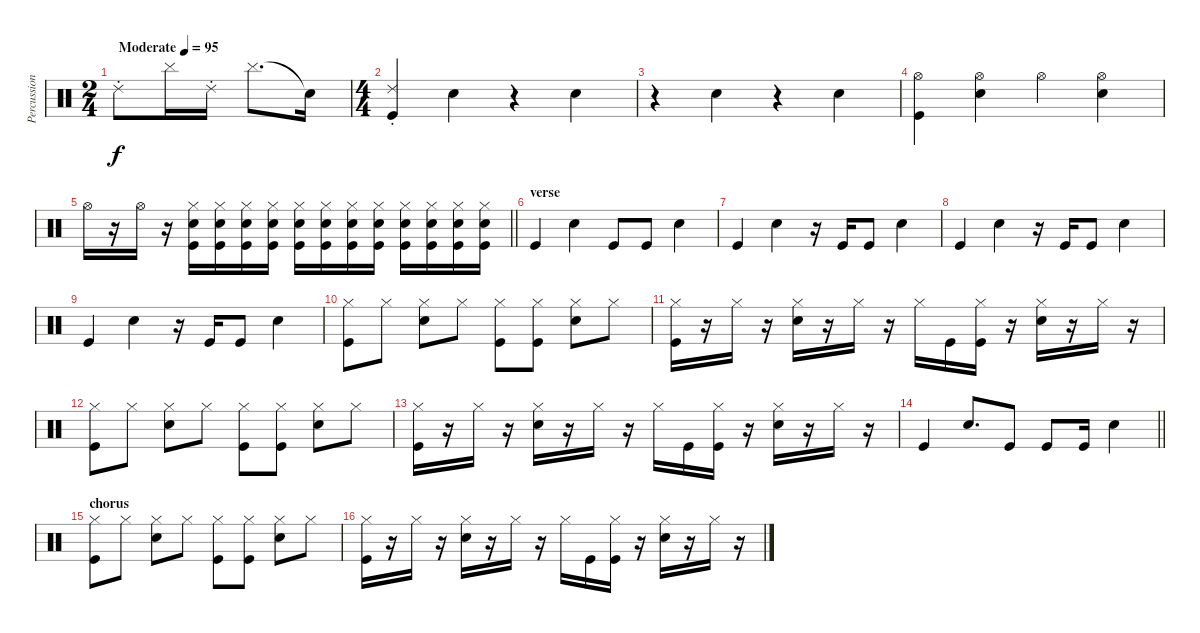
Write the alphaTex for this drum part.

\track ("Percussion" "Percussion") {instrument percussion}
\staff {score}
\articulation defaults
\ts (2 4)
\tempo (95 "Moderate")
\clef neutral
\ks c "Ride (choke) 2".8{dy f} "Cymbal (hit)".16 "Ride (choke) 2".16 "Cymbal (hit)".8{d} "Snare (hit)"{t}.16
|
\ts (4 4)
("Ride (choke) 2" "Kick (hit)").4 "Hand Clap (hit)".4 r.4 "Hand Clap (hit)".4 |
r.4 "Hand Clap (hit)".4 r.4 "Hand Clap (hit)".4 |
("Hi-Hat (open)" "Kick (hit)").4 ("Hi-Hat (open)" "Hand Clap (hit)").4 "Hi-Hat (open)".4 ("Hi-Hat (open)" "Hand Clap (hit)").4 |
\barLineRight lightlight "Hi-Hat (open)".16
r.16 "Hi-Hat (open)".16 r.16 ("Hi-Hat (closed)" "Snare (hit) 2" "Kick (hit)").16 ("Hi-Hat (closed)" "Snare (hit) 2" "Kick (hit)").16 ("Hi-Hat (closed)" "Snare (hit) 2" "Kick (hit)").16 ("Hi-Hat (closed)" "Snare (hit) 2" "Kick (hit)").16 ("Hi-Hat (closed)" "Snare (hit) 2" "Kick (hit)").16 ("Hi-Hat (closed)" "Snare (hit) 2" "Kick (hit)").16 ("Hi-Hat (closed)" "Snare (hit) 2" "Kick (hit)").16 ("Hi-Hat (closed)" "Snare (hit) 2" "Kick (hit)").16 ("Hi-Hat (closed)" "Snare (hit) 2" "Kick (hit)").16 ("Hi-Hat (closed)" "Snare (hit) 2" "Kick (hit)").16 ("Hi-Hat (closed)" "Snare (hit) 2" "Kick (hit)").16 ("Hi-Hat (closed)" "Snare (hit) 2" "Kick (hit)").16 |
\section ("" "verse")
"Kick (hit)".4 "Hand Clap (hit)".4 "Kick (hit)".8 "Kick (hit)".8 "Hand Clap (hit)".4 |
"Kick (hit)".4 "Snare (hit) 2".4 r.16 "Kick (hit)".16 "Kick (hit)".8 "Snare (hit) 2".4 |
"Kick (hit)".4 "Snare (hit) 2".4 r.16 "Kick (hit)".16 "Kick (hit)".8 "Snare (hit) 2".4 |
"Kick (hit)".4 "Snare (hit) 2".4 r.16 "Kick (hit)".16 "Kick (hit)".8 "Snare (hit) 2".4 |
("Hi-Hat (closed)" "Kick (hit)").8 "Hi-Hat (closed)".8 ("Hi-Hat (closed)" "Hand Clap (hit)").8 "Hi-Hat (closed)".8 ("Hi-Hat (closed)" "Kick (hit)").8 ("Hi-Hat (closed)" "Kick (hit)").8 ("Hi-Hat (closed)" "Hand Clap (hit)").8 "Hi-Hat (closed)".8 |
("Hi-Hat (closed)" "Kick (hit)").16 r.16 "Hi-Hat (closed)".16 r.16 ("Hi-Hat (closed)" "Hand Clap (hit)").16 r.16 "Hi-Hat (closed)".16 r.16 "Hi-Hat (closed)".16 "Kick (hit)".16 ("Hi-Hat (closed)" "Kick (hit)").16 r.16 ("Hi-Hat (closed)" "Hand Clap (hit)").16 r.16 "Hi-Hat (closed)".16 r.16 |
("Hi-Hat (closed)" "Kick (hit)").8 "Hi-Hat (closed)".8 ("Hi-Hat (closed)" "Hand Clap (hit)").8 "Hi-Hat (closed)".8 ("Hi-Hat (closed)" "Kick (hit)").8 ("Hi-Hat (closed)" "Kick (hit)").8 ("Hi-Hat (closed)" "Hand Clap (hit)").8 "Hi-Hat (closed)".8 |
("Hi-Hat (closed)" "Kick (hit)").16 r.16 "Hi-Hat (closed)".16 r.16 ("Hi-Hat (closed)" "Hand Clap (hit)").16 r.16 "Hi-Hat (closed)".16 r.16 "Hi-Hat (closed)".16 "Kick (hit)".16 ("Hi-Hat (closed)" "Kick (hit)").16 r.16 ("Hi-Hat (closed)" "Hand Clap (hit)").16 r.16 "Hi-Hat (closed)".16 r.16 |
\barLineRight lightlight "Kick (hit)".4 "Hand Clap (hit)".8{d} "Kick (hit)".8 "Kick (hit)".8 "Kick (hit)".16 "Hand Clap (hit)".4
|
\section ("" "chorus")
("Hi-Hat (closed)" "Kick (hit)").8 "Hi-Hat (closed)".8 ("Hi-Hat (closed)" "Hand Clap (hit)").8 "Hi-Hat (closed)".8 ("Hi-Hat (closed)" "Kick (hit)").8 ("Hi-Hat (closed)" "Kick (hit)").8 ("Hi-Hat (closed)" "Hand Clap (hit)").8 "Hi-Hat (closed)".8 |
("Hi-Hat (closed)" "Kick (hit)").16 r.16 "Hi-Hat (closed)".16 r.16 ("Hi-Hat (closed)" "Hand Clap (hit)").16 r.16 "Hi-Hat (closed)".16 r.16 "Hi-Hat (closed)".16 "Kick (hit)".16 ("Hi-Hat (closed)" "Kick (hit)").16 r.16 ("Hi-Hat (closed)" "Hand Clap (hit)").16 r.16 "Hi-Hat (closed)".16 r.16
